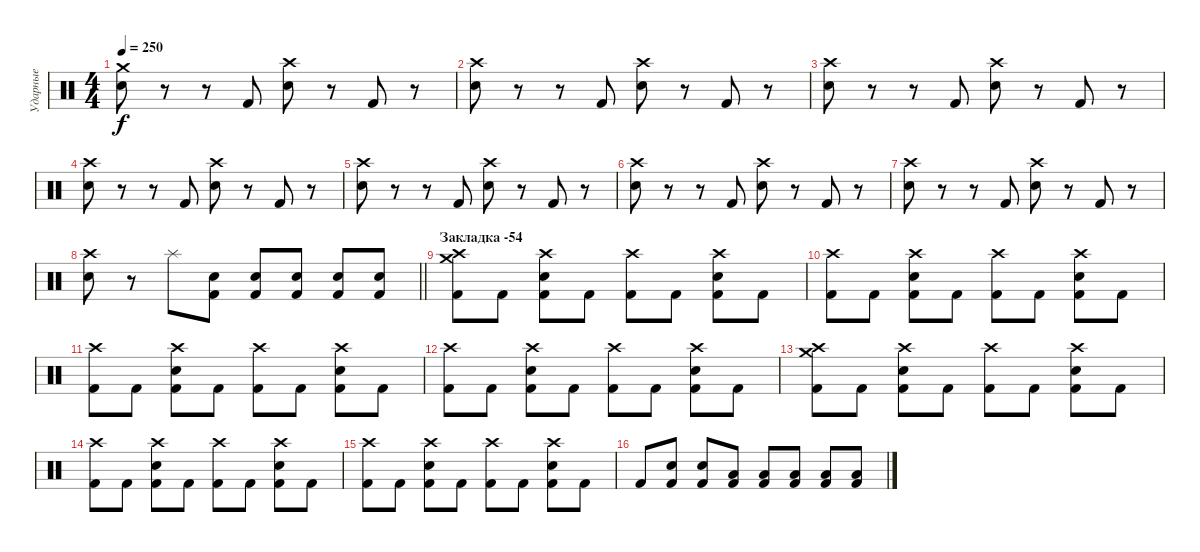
\track ("Ударные" "Ударные") {instrument percussion}
\staff {score}
\articulation defaults
\ts (4 4)
\tempo 250
\clef neutral
\ks c
("Crash medium (hit)" "Electric Snare (hit)").8{dy f} r.8 r.8 "Kick (hit) 2".8 ("Crash high (hit)" "Electric Snare (hit)").8 r.8 "Kick (hit) 2".8 r.8 |
("Crash high (hit)" "Electric Snare (hit)").8 r.8 r.8 "Kick (hit) 2".8 ("Crash high (hit)" "Electric Snare (hit)").8 r.8 "Kick (hit) 2".8 r.8 |
("Crash high (hit)" "Electric Snare (hit)").8 r.8 r.8 "Kick (hit) 2".8 ("Crash high (hit)" "Electric Snare (hit)").8 r.8 "Kick (hit) 2".8 r.8 |
("Crash high (hit)" "Electric Snare (hit)").8 r.8 r.8 "Kick (hit) 2".8 ("Crash high (hit)" "Electric Snare (hit)").8 r.8 "Kick (hit) 2".8 r.8 |
("Crash high (hit)" "Electric Snare (hit)").8 r.8 r.8 "Kick (hit) 2".8 ("Crash high (hit)" "Electric Snare (hit)").8 r.8 "Kick (hit) 2".8 r.8 |
("Crash high (hit)" "Electric Snare (hit)").8 r.8 r.8 "Kick (hit) 2".8 ("Crash high (hit)" "Electric Snare (hit)").8 r.8 "Kick (hit) 2".8 r.8 |
("Crash high (hit)" "Electric Snare (hit)").8 r.8 r.8 "Kick (hit) 2".8 ("Crash high (hit)" "Electric Snare (hit)").8 r.8 "Kick (hit) 2".8 r.8 |
\barLineRight lightlight
("Crash high (hit)" "Electric Snare (hit)").8 r.8 "Splash (hit)".8 ("Electric Snare (hit)" "Kick (hit) 2").8 ("Electric Snare (hit)" "Kick (hit) 2").8 ("Electric Snare (hit)" "Kick (hit) 2").8 ("Electric Snare (hit)" "Kick (hit) 2").8 ("Electric Snare (hit)" "Kick (hit) 2").8 |
\section ("" "Закладка -54")
("Crash medium (hit)" "Crash high (hit)" "Kick (hit) 2").8 "Kick (hit) 2".8 ("Crash high (hit)" "Electric Snare (hit)" "Kick (hit) 2").8 "Kick (hit) 2".8 ("Crash high (hit)" "Kick (hit) 2").8 "Kick (hit) 2".8 ("Crash high (hit)" "Electric Snare (hit)" "Kick (hit) 2").8 "Kick (hit) 2".8 |
("Crash high (hit)" "Kick (hit) 2").8 "Kick (hit) 2".8 ("Crash high (hit)" "Electric Snare (hit)" "Kick (hit) 2").8 "Kick (hit) 2".8 ("Crash high (hit)" "Kick (hit) 2").8 "Kick (hit) 2".8 ("Crash high (hit)" "Electric Snare (hit)" "Kick (hit) 2").8 "Kick (hit) 2".8 |
("Crash high (hit)" "Kick (hit) 2").8 "Kick (hit) 2".8 ("Crash high (hit)" "Electric Snare (hit)" "Kick (hit) 2").8 "Kick (hit) 2".8 ("Crash high (hit)" "Kick (hit) 2").8 "Kick (hit) 2".8 ("Crash high (hit)" "Electric Snare (hit)" "Kick (hit) 2").8 "Kick (hit) 2".8 |
("Crash high (hit)" "Kick (hit) 2").8 "Kick (hit) 2".8 ("Crash high (hit)" "Electric Snare (hit)" "Kick (hit) 2").8 "Kick (hit) 2".8 ("Crash high (hit)" "Kick (hit) 2").8 "Kick (hit) 2".8 ("Crash high (hit)" "Electric Snare (hit)" "Kick (hit) 2").8 "Kick (hit) 2".8 |
("Crash medium (hit)" "Crash high (hit)" "Kick (hit) 2").8 "Kick (hit) 2".8 ("Crash high (hit)" "Electric Snare (hit)" "Kick (hit) 2").8 "Kick (hit) 2".8 ("Crash high (hit)" "Kick (hit) 2").8 "Kick (hit) 2".8 ("Crash high (hit)" "Electric Snare (hit)" "Kick (hit) 2").8 "Kick (hit) 2".8 |
("Crash high (hit)" "Kick (hit) 2").8 "Kick (hit) 2".8 ("Crash high (hit)" "Electric Snare (hit)" "Kick (hit) 2").8 "Kick (hit) 2".8 ("Crash high (hit)" "Kick (hit) 2").8 "Kick (hit) 2".8 ("Crash high (hit)" "Electric Snare (hit)" "Kick (hit) 2").8 "Kick (hit) 2".8 |
("Crash high (hit)" "Kick (hit) 2").8 "Kick (hit) 2".8 ("Crash high (hit)" "Electric Snare (hit)" "Kick (hit) 2").8 "Kick (hit) 2".8 ("Crash high (hit)" "Kick (hit) 2").8 "Kick (hit) 2".8 ("Crash high (hit)" "Electric Snare (hit)" "Kick (hit) 2").8 "Kick (hit) 2".8 |
"Kick (hit) 2".8 ("Electric Snare (hit)" "Kick (hit) 2").8 ("Electric Snare (hit)" "Kick (hit) 2").8 ("Low Tom (hit)" "Kick (hit) 2").8 ("Low Tom (hit)" "Kick (hit) 2").8 ("Low Tom (hit)" "Kick (hit) 2").8 ("Low Floor Tom (hit)" "Kick (hit) 2").8 ("Low Floor Tom (hit)" "Kick (hit) 2").8
